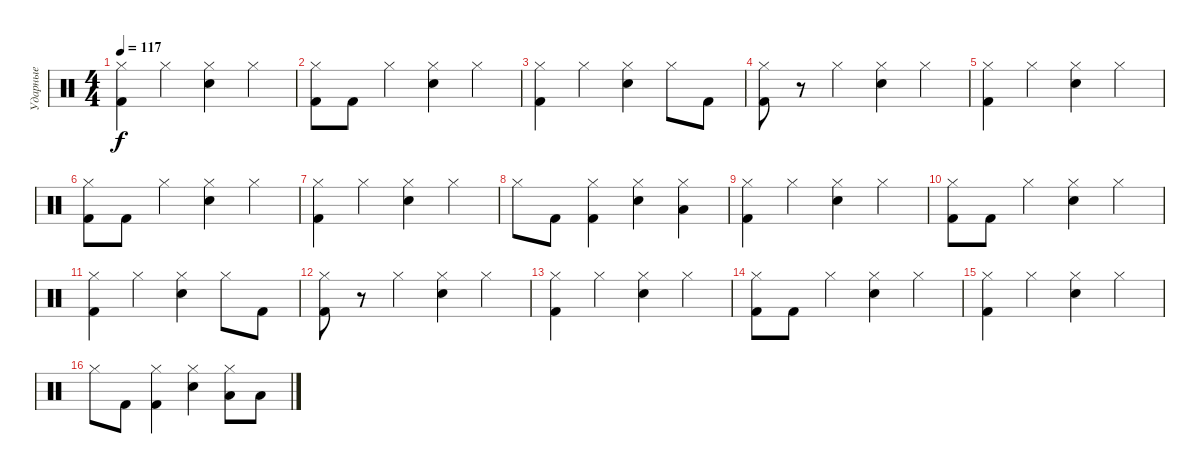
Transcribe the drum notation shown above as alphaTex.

\track ("Ударные" "Ударные") {instrument percussion}
\staff {score}
\articulation defaults
\ts (4 4)
\tempo 117
\clef neutral
\ks c
("Hi-Hat (closed)" "Kick (hit) 2").4{dy f} "Hi-Hat (closed)".4 ("Hi-Hat (closed)" "Electric Snare (hit)").4 "Hi-Hat (closed)".4 |
("Hi-Hat (closed)" "Kick (hit) 2").8 "Kick (hit) 2".8 "Hi-Hat (closed)".4 ("Hi-Hat (closed)" "Electric Snare (hit)").4 "Hi-Hat (closed)".4 |
("Hi-Hat (closed)" "Kick (hit) 2").4 "Hi-Hat (closed)".4 ("Hi-Hat (closed)" "Electric Snare (hit)").4 "Hi-Hat (closed)".8 "Kick (hit) 2".8 |
("Hi-Hat (closed)" "Kick (hit) 2").8 r.8 "Hi-Hat (closed)".4 ("Hi-Hat (closed)" "Electric Snare (hit)").4 "Hi-Hat (closed)".4 |
("Hi-Hat (closed)" "Kick (hit) 2").4 "Hi-Hat (closed)".4 ("Hi-Hat (closed)" "Electric Snare (hit)").4 "Hi-Hat (closed)".4 |
("Hi-Hat (closed)" "Kick (hit) 2").8 "Kick (hit) 2".8 "Hi-Hat (closed)".4 ("Hi-Hat (closed)" "Electric Snare (hit)").4 "Hi-Hat (closed)".4 |
("Hi-Hat (closed)" "Kick (hit) 2").4 "Hi-Hat (closed)".4 ("Hi-Hat (closed)" "Electric Snare (hit)").4 "Hi-Hat (closed)".4 |
"Hi-Hat (closed)".8 "Kick (hit) 2".8 ("Hi-Hat (closed)" "Kick (hit) 2").4 ("Hi-Hat (closed)" "Electric Snare (hit)").4 ("Hi-Hat (closed)" "Low Floor Tom (hit)").4 |
("Hi-Hat (closed)" "Kick (hit) 2").4 "Hi-Hat (closed)".4 ("Hi-Hat (closed)" "Electric Snare (hit)").4 "Hi-Hat (closed)".4 |
("Hi-Hat (closed)" "Kick (hit) 2").8 "Kick (hit) 2".8 "Hi-Hat (closed)".4 ("Hi-Hat (closed)" "Electric Snare (hit)").4 "Hi-Hat (closed)".4 |
("Hi-Hat (closed)" "Kick (hit) 2").4 "Hi-Hat (closed)".4 ("Hi-Hat (closed)" "Electric Snare (hit)").4 "Hi-Hat (closed)".8 "Kick (hit) 2".8 |
("Hi-Hat (closed)" "Kick (hit) 2").8 r.8 "Hi-Hat (closed)".4 ("Hi-Hat (closed)" "Electric Snare (hit)").4 "Hi-Hat (closed)".4 |
("Hi-Hat (closed)" "Kick (hit) 2").4 "Hi-Hat (closed)".4 ("Hi-Hat (closed)" "Electric Snare (hit)").4 "Hi-Hat (closed)".4 |
("Hi-Hat (closed)" "Kick (hit) 2").8 "Kick (hit) 2".8 "Hi-Hat (closed)".4 ("Hi-Hat (closed)" "Electric Snare (hit)").4 "Hi-Hat (closed)".4 |
("Hi-Hat (closed)" "Kick (hit) 2").4 "Hi-Hat (closed)".4 ("Hi-Hat (closed)" "Electric Snare (hit)").4 "Hi-Hat (closed)".4 |
"Hi-Hat (closed)".8 "Kick (hit) 2".8 ("Hi-Hat (closed)" "Kick (hit) 2").4 ("Hi-Hat (closed)" "Electric Snare (hit)").4 ("Hi-Hat (closed)" "Low Tom (hit)").8 "Low Floor Tom (hit)".8
